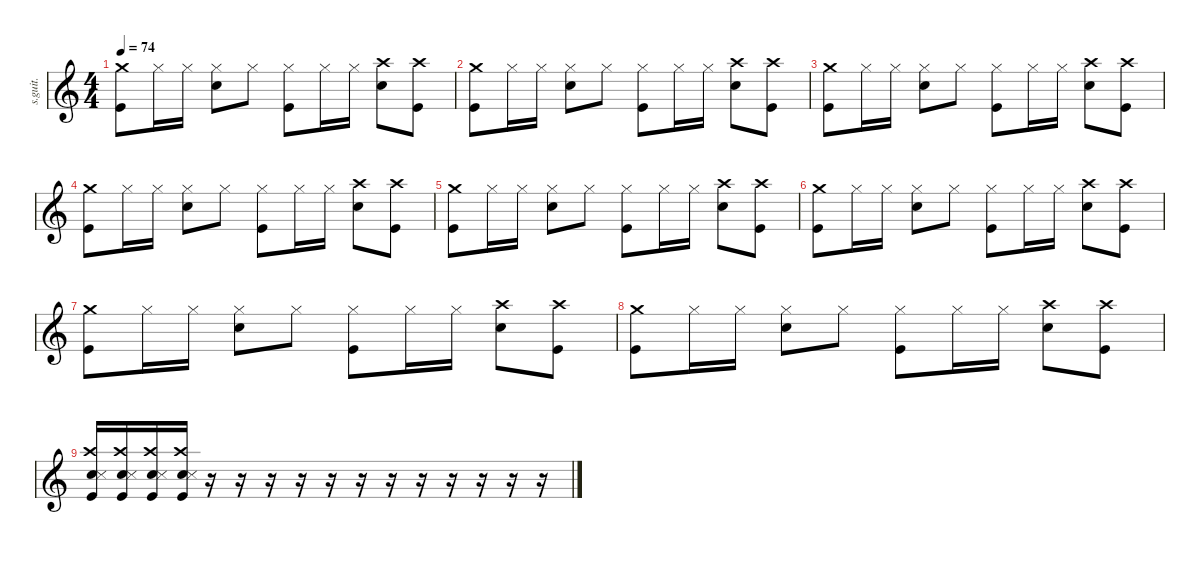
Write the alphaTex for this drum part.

\defaultSystemsLayout 4
\hideDynamics
\bracketExtendMode nobrackets
\track ("Don Henley - Drums" "s.guit.") {instrument percussion}
\staff {score}
\articulation defaults
\ts (4 4)
\tempo 74
\clef g2
\ks c
("Crash medium (hit)" "Kick (hit)").8{lyrics (0 "") lyrics (1 "") lyrics (2 "") lyrics (3 "") lyrics (4 "") dy f} "Hi-Hat (closed)".16{lyrics (0 "") lyrics (1 "") lyrics (2 "") lyrics (3 "") lyrics (4 "")} "Hi-Hat (closed)".16{lyrics (0 "") lyrics (1 "") lyrics (2 "") lyrics (3 "") lyrics (4 "")} ("Hi-Hat (closed)" "Snare (hit) 2").8{lyrics (0 "") lyrics (1 "") lyrics (2 "") lyrics (3 "") lyrics (4 "")} "Hi-Hat (closed)".8{lyrics (0 "") lyrics (1 "") lyrics (2 "") lyrics (3 "") lyrics (4 "")} ("Hi-Hat (closed)" "Kick (hit)").8{lyrics (0 "") lyrics (1 "") lyrics (2 "") lyrics (3 "") lyrics (4 "")} "Hi-Hat (closed)".16{lyrics (0 "") lyrics (1 "") lyrics (2 "") lyrics (3 "") lyrics (4 "")} "Hi-Hat (closed)".16{lyrics (0 "") lyrics (1 "") lyrics (2 "") lyrics (3 "") lyrics (4 "")} ("Crash high (hit)" "Snare (hit) 2").8{lyrics (0 "") lyrics (1 "") lyrics (2 "") lyrics (3 "") lyrics (4 "")} ("Crash high (hit)" "Kick (hit)").8{lyrics (0 "") lyrics (1 "") lyrics (2 "") lyrics (3 "") lyrics (4 "")} |
("Crash medium (hit)" "Kick (hit)").8{lyrics (0 "") lyrics (1 "") lyrics (2 "") lyrics (3 "") lyrics (4 "")} "Hi-Hat (closed)".16{lyrics (0 "") lyrics (1 "") lyrics (2 "") lyrics (3 "") lyrics (4 "")} "Hi-Hat (closed)".16{lyrics (0 "") lyrics (1 "") lyrics (2 "") lyrics (3 "") lyrics (4 "")} ("Hi-Hat (closed)" "Snare (hit) 2").8{lyrics (0 "") lyrics (1 "") lyrics (2 "") lyrics (3 "") lyrics (4 "")} "Hi-Hat (closed)".8{lyrics (0 "") lyrics (1 "") lyrics (2 "") lyrics (3 "") lyrics (4 "")} ("Hi-Hat (closed)" "Kick (hit)").8{lyrics (0 "") lyrics (1 "") lyrics (2 "") lyrics (3 "") lyrics (4 "")} "Hi-Hat (closed)".16{lyrics (0 "") lyrics (1 "") lyrics (2 "") lyrics (3 "") lyrics (4 "")} "Hi-Hat (closed)".16{lyrics (0 "") lyrics (1 "") lyrics (2 "") lyrics (3 "") lyrics (4 "")} ("Crash high (hit)" "Snare (hit) 2").8{lyrics (0 "") lyrics (1 "") lyrics (2 "") lyrics (3 "") lyrics (4 "")} ("Crash high (hit)" "Kick (hit)").8{lyrics (0 "") lyrics (1 "") lyrics (2 "") lyrics (3 "") lyrics (4 "")} |
("Crash medium (hit)" "Kick (hit)").8{lyrics (0 "") lyrics (1 "") lyrics (2 "") lyrics (3 "") lyrics (4 "")} "Hi-Hat (closed)".16{lyrics (0 "") lyrics (1 "") lyrics (2 "") lyrics (3 "") lyrics (4 "")} "Hi-Hat (closed)".16{lyrics (0 "") lyrics (1 "") lyrics (2 "") lyrics (3 "") lyrics (4 "")} ("Hi-Hat (closed)" "Snare (hit) 2").8{lyrics (0 "") lyrics (1 "") lyrics (2 "") lyrics (3 "") lyrics (4 "")} "Hi-Hat (closed)".8{lyrics (0 "") lyrics (1 "") lyrics (2 "") lyrics (3 "") lyrics (4 "")} ("Hi-Hat (closed)" "Kick (hit)").8{lyrics (0 "") lyrics (1 "") lyrics (2 "") lyrics (3 "") lyrics (4 "")} "Hi-Hat (closed)".16{lyrics (0 "") lyrics (1 "") lyrics (2 "") lyrics (3 "") lyrics (4 "")} "Hi-Hat (closed)".16{lyrics (0 "") lyrics (1 "") lyrics (2 "") lyrics (3 "") lyrics (4 "")} ("Crash high (hit)" "Snare (hit) 2").8{lyrics (0 "") lyrics (1 "") lyrics (2 "") lyrics (3 "") lyrics (4 "")} ("Crash high (hit)" "Kick (hit)").8{lyrics (0 "") lyrics (1 "") lyrics (2 "") lyrics (3 "") lyrics (4 "")} |
("Crash medium (hit)" "Kick (hit)").8{lyrics (0 "") lyrics (1 "") lyrics (2 "") lyrics (3 "") lyrics (4 "")} "Hi-Hat (closed)".16{lyrics (0 "") lyrics (1 "") lyrics (2 "") lyrics (3 "") lyrics (4 "")} "Hi-Hat (closed)".16{lyrics (0 "") lyrics (1 "") lyrics (2 "") lyrics (3 "") lyrics (4 "")} ("Hi-Hat (closed)" "Snare (hit) 2").8{lyrics (0 "") lyrics (1 "") lyrics (2 "") lyrics (3 "") lyrics (4 "")} "Hi-Hat (closed)".8{lyrics (0 "") lyrics (1 "") lyrics (2 "") lyrics (3 "") lyrics (4 "")} ("Hi-Hat (closed)" "Kick (hit)").8{lyrics (0 "") lyrics (1 "") lyrics (2 "") lyrics (3 "") lyrics (4 "")} "Hi-Hat (closed)".16{lyrics (0 "") lyrics (1 "") lyrics (2 "") lyrics (3 "") lyrics (4 "")} "Hi-Hat (closed)".16{lyrics (0 "") lyrics (1 "") lyrics (2 "") lyrics (3 "") lyrics (4 "")} ("Crash high (hit)" "Snare (hit) 2").8{lyrics (0 "") lyrics (1 "") lyrics (2 "") lyrics (3 "") lyrics (4 "")} ("Crash high (hit)" "Kick (hit)").8{lyrics (0 "") lyrics (1 "") lyrics (2 "") lyrics (3 "") lyrics (4 "")} |
("Crash medium (hit)" "Kick (hit)").8{lyrics (0 "") lyrics (1 "") lyrics (2 "") lyrics (3 "") lyrics (4 "")} "Hi-Hat (closed)".16{lyrics (0 "") lyrics (1 "") lyrics (2 "") lyrics (3 "") lyrics (4 "")} "Hi-Hat (closed)".16{lyrics (0 "") lyrics (1 "") lyrics (2 "") lyrics (3 "") lyrics (4 "")} ("Hi-Hat (closed)" "Snare (hit) 2").8{lyrics (0 "") lyrics (1 "") lyrics (2 "") lyrics (3 "") lyrics (4 "")} "Hi-Hat (closed)".8{lyrics (0 "") lyrics (1 "") lyrics (2 "") lyrics (3 "") lyrics (4 "")} ("Hi-Hat (closed)" "Kick (hit)").8{lyrics (0 "") lyrics (1 "") lyrics (2 "") lyrics (3 "") lyrics (4 "")} "Hi-Hat (closed)".16{lyrics (0 "") lyrics (1 "") lyrics (2 "") lyrics (3 "") lyrics (4 "")} "Hi-Hat (closed)".16{lyrics (0 "") lyrics (1 "") lyrics (2 "") lyrics (3 "") lyrics (4 "")} ("Crash high (hit)" "Snare (hit) 2").8{lyrics (0 "") lyrics (1 "") lyrics (2 "") lyrics (3 "") lyrics (4 "")} ("Crash high (hit)" "Kick (hit)").8{lyrics (0 "") lyrics (1 "") lyrics (2 "") lyrics (3 "") lyrics (4 "")} |
("Crash medium (hit)" "Kick (hit)").8{lyrics (0 "") lyrics (1 "") lyrics (2 "") lyrics (3 "") lyrics (4 "")} "Hi-Hat (closed)".16{lyrics (0 "") lyrics (1 "") lyrics (2 "") lyrics (3 "") lyrics (4 "")} "Hi-Hat (closed)".16{lyrics (0 "") lyrics (1 "") lyrics (2 "") lyrics (3 "") lyrics (4 "")} ("Hi-Hat (closed)" "Snare (hit) 2").8{lyrics (0 "") lyrics (1 "") lyrics (2 "") lyrics (3 "") lyrics (4 "")} "Hi-Hat (closed)".8{lyrics (0 "") lyrics (1 "") lyrics (2 "") lyrics (3 "") lyrics (4 "")} ("Hi-Hat (closed)" "Kick (hit)").8{lyrics (0 "") lyrics (1 "") lyrics (2 "") lyrics (3 "") lyrics (4 "")} "Hi-Hat (closed)".16{lyrics (0 "") lyrics (1 "") lyrics (2 "") lyrics (3 "") lyrics (4 "")} "Hi-Hat (closed)".16{lyrics (0 "") lyrics (1 "") lyrics (2 "") lyrics (3 "") lyrics (4 "")} ("Crash high (hit)" "Snare (hit) 2").8{lyrics (0 "") lyrics (1 "") lyrics (2 "") lyrics (3 "") lyrics (4 "")} ("Crash high (hit)" "Kick (hit)").8{lyrics (0 "") lyrics (1 "") lyrics (2 "") lyrics (3 "") lyrics (4 "")} |
("Crash medium (hit)" "Kick (hit)").8{lyrics (0 "") lyrics (1 "") lyrics (2 "") lyrics (3 "") lyrics (4 "")} "Hi-Hat (closed)".16{lyrics (0 "") lyrics (1 "") lyrics (2 "") lyrics (3 "") lyrics (4 "")} "Hi-Hat (closed)".16{lyrics (0 "") lyrics (1 "") lyrics (2 "") lyrics (3 "") lyrics (4 "")} ("Hi-Hat (closed)" "Snare (hit) 2").8{lyrics (0 "") lyrics (1 "") lyrics (2 "") lyrics (3 "") lyrics (4 "")} "Hi-Hat (closed)".8{lyrics (0 "") lyrics (1 "") lyrics (2 "") lyrics (3 "") lyrics (4 "")} ("Hi-Hat (closed)" "Kick (hit)").8{lyrics (0 "") lyrics (1 "") lyrics (2 "") lyrics (3 "") lyrics (4 "")} "Hi-Hat (closed)".16{lyrics (0 "") lyrics (1 "") lyrics (2 "") lyrics (3 "") lyrics (4 "")} "Hi-Hat (closed)".16{lyrics (0 "") lyrics (1 "") lyrics (2 "") lyrics (3 "") lyrics (4 "")} ("Crash high (hit)" "Snare (hit) 2").8{lyrics (0 "") lyrics (1 "") lyrics (2 "") lyrics (3 "") lyrics (4 "")} ("Crash high (hit)" "Kick (hit)").8{lyrics (0 "") lyrics (1 "") lyrics (2 "") lyrics (3 "") lyrics (4 "")} |
("Crash medium (hit)" "Kick (hit)").8{lyrics (0 "") lyrics (1 "") lyrics (2 "") lyrics (3 "") lyrics (4 "")} "Hi-Hat (closed)".16{lyrics (0 "") lyrics (1 "") lyrics (2 "") lyrics (3 "") lyrics (4 "")} "Hi-Hat (closed)".16{lyrics (0 "") lyrics (1 "") lyrics (2 "") lyrics (3 "") lyrics (4 "")} ("Hi-Hat (closed)" "Snare (hit) 2").8{lyrics (0 "") lyrics (1 "") lyrics (2 "") lyrics (3 "") lyrics (4 "")} "Hi-Hat (closed)".8{lyrics (0 "") lyrics (1 "") lyrics (2 "") lyrics (3 "") lyrics (4 "")} ("Hi-Hat (closed)" "Kick (hit)").8{lyrics (0 "") lyrics (1 "") lyrics (2 "") lyrics (3 "") lyrics (4 "")} "Hi-Hat (closed)".16{lyrics (0 "") lyrics (1 "") lyrics (2 "") lyrics (3 "") lyrics (4 "")} "Hi-Hat (closed)".16{lyrics (0 "") lyrics (1 "") lyrics (2 "") lyrics (3 "") lyrics (4 "")} ("Crash high (hit)" "Snare (hit) 2").8{lyrics (0 "") lyrics (1 "") lyrics (2 "") lyrics (3 "") lyrics (4 "")} ("Crash high (hit)" "Kick (hit)").8{lyrics (0 "") lyrics (1 "") lyrics (2 "") lyrics (3 "") lyrics (4 "")} |
("Crash high (hit)" "Snare (hit) 2" "Snare (side stick) 3" "Kick (hit)").16{lyrics (0 "") lyrics (1 "") lyrics (2 "") lyrics (3 "") lyrics (4 "")} ("Crash high (hit)" "Snare (hit) 2" "Snare (side stick) 3" "Kick (hit)").16{lyrics (0 "") lyrics (1 "") lyrics (2 "") lyrics (3 "") lyrics (4 "")} ("Crash high (hit)" "Snare (hit) 2" "Snare (side stick) 3" "Kick (hit)").16{lyrics (0 "") lyrics (1 "") lyrics (2 "") lyrics (3 "") lyrics (4 "")} ("Crash high (hit)" "Snare (hit) 2" "Snare (side stick) 3" "Kick (hit)").16{lyrics (0 "") lyrics (1 "") lyrics (2 "") lyrics (3 "") lyrics (4 "")} r.16 r.16 r.16 r.16 r.16 r.16 r.16 r.16 r.16 r.16 r.16 r.16
